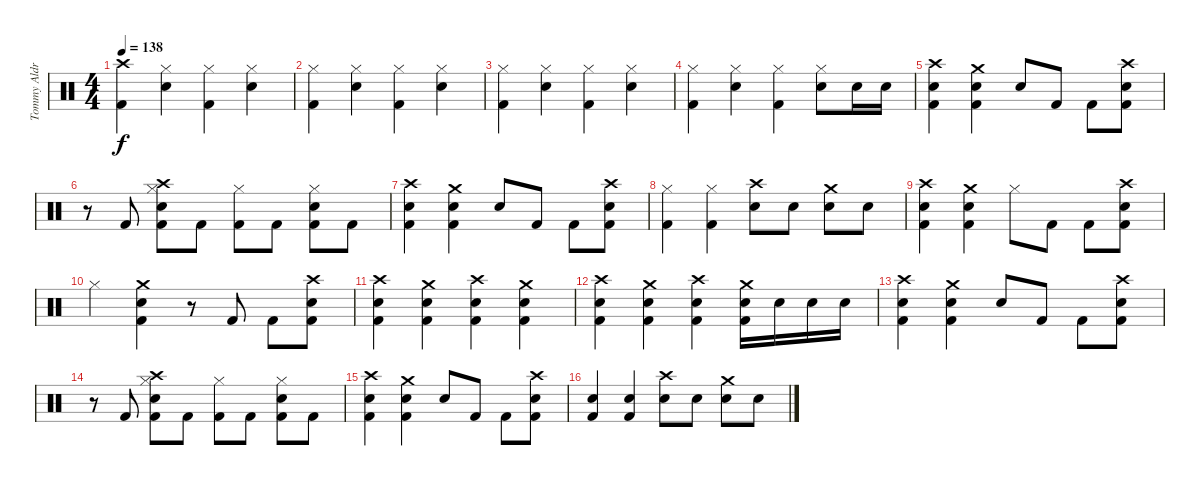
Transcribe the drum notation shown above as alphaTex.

\track ("Tommy Aldridge" "Tommy Aldr") {instrument percussion}
\staff {score}
\articulation defaults
\ts (4 4)
\tempo 138
\clef neutral
\ks c
("Crash high (hit)" "Kick (hit) 2").4{dy f} ("Snare (hit) 2" "Hi-Hat (closed)").4 ("Hi-Hat (closed)" "Kick (hit) 2").4 ("Snare (hit) 2" "Hi-Hat (closed)").4 |
("Hi-Hat (closed)" "Kick (hit) 2").4 ("Snare (hit) 2" "Hi-Hat (closed)").4 ("Hi-Hat (closed)" "Kick (hit) 2").4 ("Snare (hit) 2" "Hi-Hat (closed)").4 |
("Hi-Hat (closed)" "Kick (hit) 2").4 ("Snare (hit) 2" "Hi-Hat (closed)").4 ("Hi-Hat (closed)" "Kick (hit) 2").4 ("Snare (hit) 2" "Hi-Hat (closed)").4 |
("Hi-Hat (closed)" "Kick (hit) 2").4 ("Snare (hit) 2" "Hi-Hat (closed)").4 ("Hi-Hat (closed)" "Kick (hit) 2").4 ("Snare (hit) 2" "Hi-Hat (closed)").8 "Snare (hit) 2".16 "Snare (hit) 2".16 |
("Crash high (hit)" "Snare (hit) 2" "Kick (hit) 2").4 ("Crash medium (hit)" "Snare (hit) 2" "Kick (hit) 2").4 "Snare (hit) 2".8 "Kick (hit) 2".8 "Kick (hit) 2".8 ("Crash high (hit)" "Snare (hit) 2" "Kick (hit) 2").8 |
r.8 "Kick (hit) 2".8 ("Crash high (hit)" "Snare (hit) 2" "Hi-Hat (closed)" "Kick (hit) 2").8 "Kick (hit) 2".8 ("Hi-Hat (closed)" "Kick (hit) 2").8 "Kick (hit) 2".8 ("Snare (hit) 2" "Hi-Hat (closed)" "Kick (hit) 2").8 "Kick (hit) 2".8 |
("Crash high (hit)" "Snare (hit) 2" "Kick (hit) 2").4 ("Crash medium (hit)" "Snare (hit) 2" "Kick (hit) 2").4 "Snare (hit) 2".8 "Kick (hit) 2".8 "Kick (hit) 2".8 ("Crash high (hit)" "Snare (hit) 2" "Kick (hit) 2").8{txt ""} |
("Hi-Hat (closed)" "Kick (hit) 2").4 ("Hi-Hat (closed)" "Kick (hit) 2").4 ("Crash high (hit)" "Snare (hit) 2").8 "Snare (hit) 2".8 ("Crash medium (hit)" "Snare (hit) 2").8 "Snare (hit) 2".8 |
("Crash high (hit)" "Snare (hit) 2" "Kick (hit) 2").4 ("Crash medium (hit)" "Snare (hit) 2" "Kick (hit) 2").4 "Hi-Hat (closed)".8 "Kick (hit) 2".8 "Kick (hit) 2".8 ("Crash high (hit)" "Snare (hit) 2" "Kick (hit) 2").8 |
"Hi-Hat (closed)".4 ("Crash medium (hit)" "Snare (hit) 2" "Kick (hit) 2").4 r.8 "Kick (hit) 2".8 "Kick (hit) 2".8 ("Crash high (hit)" "Snare (hit) 2" "Kick (hit) 2").8 |
("Crash high (hit)" "Snare (hit) 2" "Kick (hit) 2").4 ("Crash medium (hit)" "Snare (hit) 2" "Kick (hit) 2").4 ("Crash high (hit)" "Snare (hit) 2" "Kick (hit) 2").4 ("Crash medium (hit)" "Snare (hit) 2" "Kick (hit) 2").4 |
("Crash high (hit)" "Snare (hit) 2" "Kick (hit) 2").4 ("Crash medium (hit)" "Snare (hit) 2" "Kick (hit) 2").4 ("Crash high (hit)" "Snare (hit) 2" "Kick (hit) 2").4 ("Crash medium (hit)" "Snare (hit) 2" "Kick (hit) 2").16 "Snare (hit) 2".16 "Snare (hit) 2".16 "Snare (hit) 2".16 |
("Crash high (hit)" "Snare (hit) 2" "Kick (hit) 2").4 ("Crash medium (hit)" "Snare (hit) 2" "Kick (hit) 2").4 "Snare (hit) 2".8 "Kick (hit) 2".8 "Kick (hit) 2".8 ("Crash high (hit)" "Snare (hit) 2" "Kick (hit) 2").8 |
r.8 "Kick (hit) 2".8 ("Crash high (hit)" "Snare (hit) 2" "Hi-Hat (closed)" "Kick (hit) 2").8 "Kick (hit) 2".8 ("Hi-Hat (closed)" "Kick (hit) 2").8 "Kick (hit) 2".8 ("Snare (hit) 2" "Hi-Hat (closed)" "Kick (hit) 2").8 "Kick (hit) 2".8 |
("Crash high (hit)" "Snare (hit) 2" "Kick (hit) 2").4 ("Crash medium (hit)" "Snare (hit) 2" "Kick (hit) 2").4 "Snare (hit) 2".8 "Kick (hit) 2".8 "Kick (hit) 2".8 ("Crash high (hit)" "Snare (hit) 2" "Kick (hit) 2").8 |
("Snare (hit) 2" "Kick (hit) 2").4 ("Snare (hit) 2" "Kick (hit) 2").4 ("Crash high (hit)" "Snare (hit) 2").8 "Snare (hit) 2".8 ("Crash medium (hit)" "Snare (hit) 2").8 "Snare (hit) 2".8
